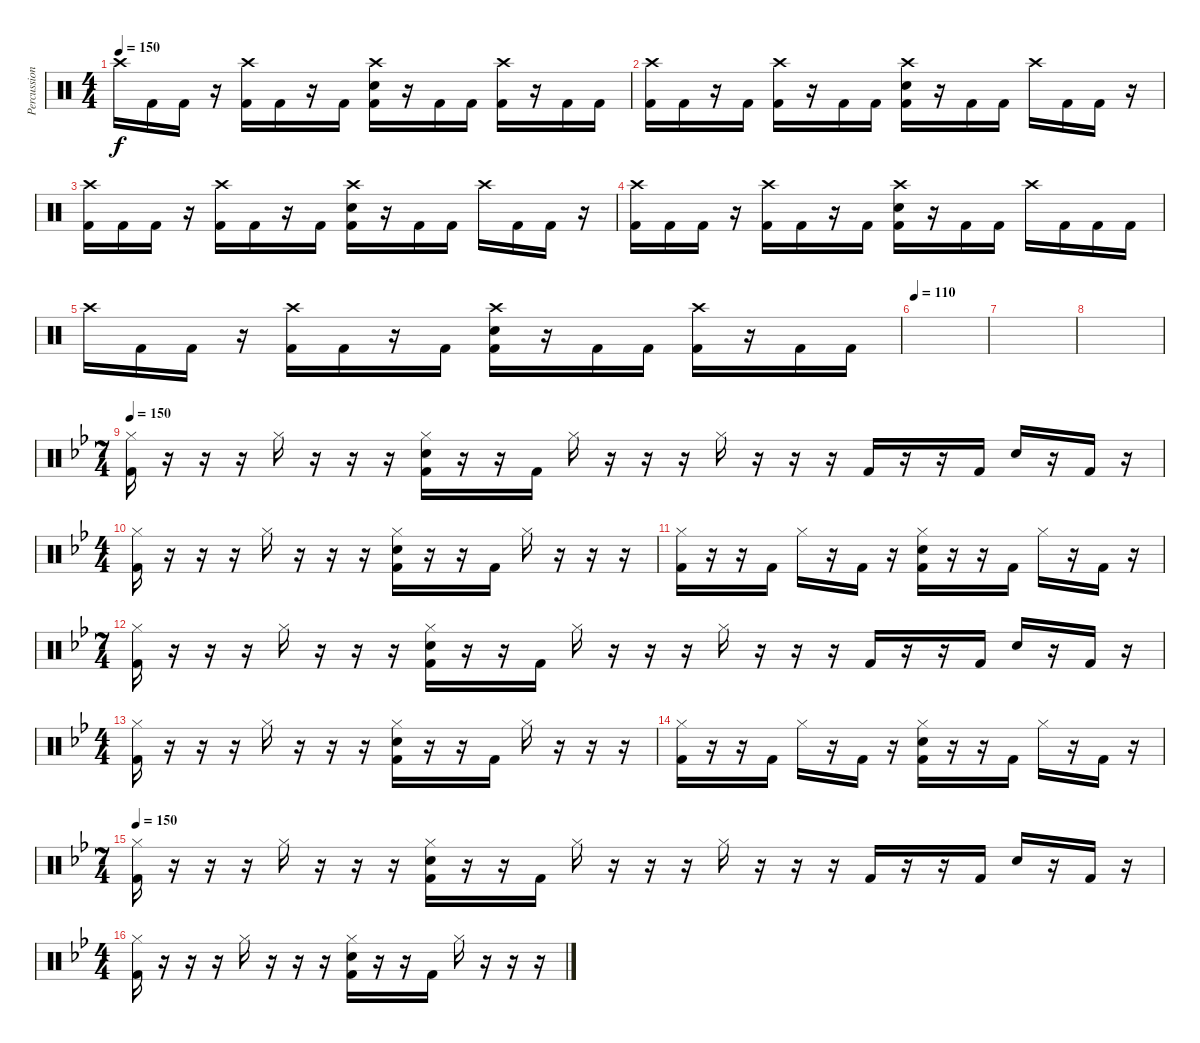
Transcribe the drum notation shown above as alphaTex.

\track ("Percussion" "Percussion") {instrument percussion}
\staff {score}
\articulation defaults
\ts (4 4)
\tempo 150
\clef neutral
\ks c "Crash high (hit)".16{dy f} "Kick (hit) 2".16 "Kick (hit) 2".16
r.16 ("Crash high (hit)" "Kick (hit) 2").16 "Kick (hit) 2".16 r.16 "Kick (hit) 2".16 ("Crash high (hit)" "Electric Snare (hit)" "Kick (hit) 2").16 r.16 "Kick (hit) 2".16 "Kick (hit) 2".16 ("Crash high (hit)" "Kick (hit) 2").16 r.16 "Kick (hit) 2".16 "Kick (hit) 2".16 |
("Crash high (hit)" "Kick (hit) 2").16 "Kick (hit) 2".16 r.16 "Kick (hit) 2".16 ("Crash high (hit)" "Kick (hit) 2").16 r.16 "Kick (hit) 2".16 "Kick (hit) 2".16 ("Crash high (hit)" "Electric Snare (hit)" "Kick (hit) 2").16 r.16 "Kick (hit) 2".16 "Kick (hit) 2".16 "Crash high (hit)".16 "Kick (hit) 2".16 "Kick (hit) 2".16 r.16 |
("Crash high (hit)" "Kick (hit) 2").16 "Kick (hit) 2".16 "Kick (hit) 2".16 r.16 ("Crash high (hit)" "Kick (hit) 2").16 "Kick (hit) 2".16 r.16 "Kick (hit) 2".16 ("Crash high (hit)" "Electric Snare (hit)" "Kick (hit) 2").16 r.16 "Kick (hit) 2".16 "Kick (hit) 2".16 "Crash high (hit)".16 "Kick (hit) 2".16 "Kick (hit) 2".16 r.16 |
("Crash high (hit)" "Kick (hit) 2").16 "Kick (hit) 2".16 "Kick (hit) 2".16 r.16 ("Crash high (hit)" "Kick (hit) 2").16 "Kick (hit) 2".16 r.16 "Kick (hit) 2".16 ("Crash high (hit)" "Electric Snare (hit)" "Kick (hit) 2").16 r.16 "Kick (hit) 2".16 "Kick (hit) 2".16 "Crash high (hit)".16 "Kick (hit) 2".16 "Kick (hit) 2".16 "Kick (hit) 2".16 |
"Crash high (hit)".16 "Kick (hit) 2".16 "Kick (hit) 2".16 r.16 ("Crash high (hit)" "Kick (hit) 2").16 "Kick (hit) 2".16 r.16 "Kick (hit) 2".16 ("Crash high (hit)" "Electric Snare (hit)" "Kick (hit) 2").16 r.16 "Kick (hit) 2".16 "Kick (hit) 2".16 ("Crash high (hit)" "Kick (hit) 2").16 r.16 "Kick (hit) 2".16 "Kick (hit) 2".16 |
\tempo 110
|
|
|
\ts (7 4)
\tempo 150
\ks bb
("Hi-Hat (closed)" "Kick (hit) 2").16 r.16 r.16 r.16 "Hi-Hat (closed)".16 r.16 r.16 r.16 ("Hi-Hat (closed)" "Electric Snare (hit)" "Kick (hit) 2").16 r.16 r.16 "Kick (hit) 2".16 "Hi-Hat (closed)".16 r.16 r.16 r.16 "Hi-Hat (closed)".16 r.16 r.16 r.16 "Kick (hit) 2".16 r.16 r.16 "Kick (hit) 2".16 "Electric Snare (hit)".16 r.16 "Kick (hit) 2".16 r.16 |
\ts (4 4)
("Hi-Hat (closed)" "Kick (hit) 2").16 r.16 r.16 r.16 "Hi-Hat (closed)".16 r.16 r.16 r.16 ("Hi-Hat (closed)" "Electric Snare (hit)" "Kick (hit) 2").16 r.16 r.16 "Kick (hit) 2".16 "Hi-Hat (closed)".16 r.16 r.16 r.16 |
("Hi-Hat (closed)" "Kick (hit) 2").16 r.16 r.16 "Kick (hit) 2".16 "Hi-Hat (closed)".16 r.16 "Kick (hit) 2".16 r.16 ("Hi-Hat (closed)" "Electric Snare (hit)" "Kick (hit) 2").16 r.16 r.16 "Kick (hit) 2".16 "Hi-Hat (closed)".16 r.16 "Kick (hit) 2".16 r.16 |
\ts (7 4)
("Hi-Hat (closed)" "Kick (hit) 2").16 r.16 r.16 r.16 "Hi-Hat (closed)".16 r.16 r.16 r.16 ("Hi-Hat (closed)" "Electric Snare (hit)" "Kick (hit) 2").16 r.16 r.16 "Kick (hit) 2".16 "Hi-Hat (closed)".16 r.16 r.16 r.16 "Hi-Hat (closed)".16 r.16 r.16 r.16 "Kick (hit) 2".16 r.16 r.16 "Kick (hit) 2".16 "Electric Snare (hit)".16 r.16 "Kick (hit) 2".16 r.16 |
\ts (4 4)
("Hi-Hat (closed)" "Kick (hit) 2").16 r.16 r.16 r.16 "Hi-Hat (closed)".16 r.16 r.16 r.16 ("Hi-Hat (closed)" "Electric Snare (hit)" "Kick (hit) 2").16 r.16 r.16 "Kick (hit) 2".16 "Hi-Hat (closed)".16 r.16 r.16 r.16 |
("Hi-Hat (closed)" "Kick (hit) 2").16 r.16 r.16 "Kick (hit) 2".16 "Hi-Hat (closed)".16 r.16 "Kick (hit) 2".16 r.16 ("Hi-Hat (closed)" "Electric Snare (hit)" "Kick (hit) 2").16 r.16 r.16 "Kick (hit) 2".16 "Hi-Hat (closed)".16 r.16 "Kick (hit) 2".16 r.16 |
\ts (7 4)
\tempo 150
("Hi-Hat (closed)" "Kick (hit) 2").16 r.16 r.16 r.16 "Hi-Hat (closed)".16 r.16 r.16 r.16 ("Hi-Hat (closed)" "Electric Snare (hit)" "Kick (hit) 2").16 r.16 r.16 "Kick (hit) 2".16 "Hi-Hat (closed)".16 r.16 r.16 r.16 "Hi-Hat (closed)".16 r.16 r.16 r.16 "Kick (hit) 2".16 r.16 r.16 "Kick (hit) 2".16 "Electric Snare (hit)".16 r.16 "Kick (hit) 2".16 r.16 |
\ts (4 4)
("Hi-Hat (closed)" "Kick (hit) 2").16 r.16 r.16 r.16 "Hi-Hat (closed)".16 r.16 r.16 r.16 ("Hi-Hat (closed)" "Electric Snare (hit)" "Kick (hit) 2").16 r.16 r.16 "Kick (hit) 2".16 "Hi-Hat (closed)".16 r.16 r.16 r.16
